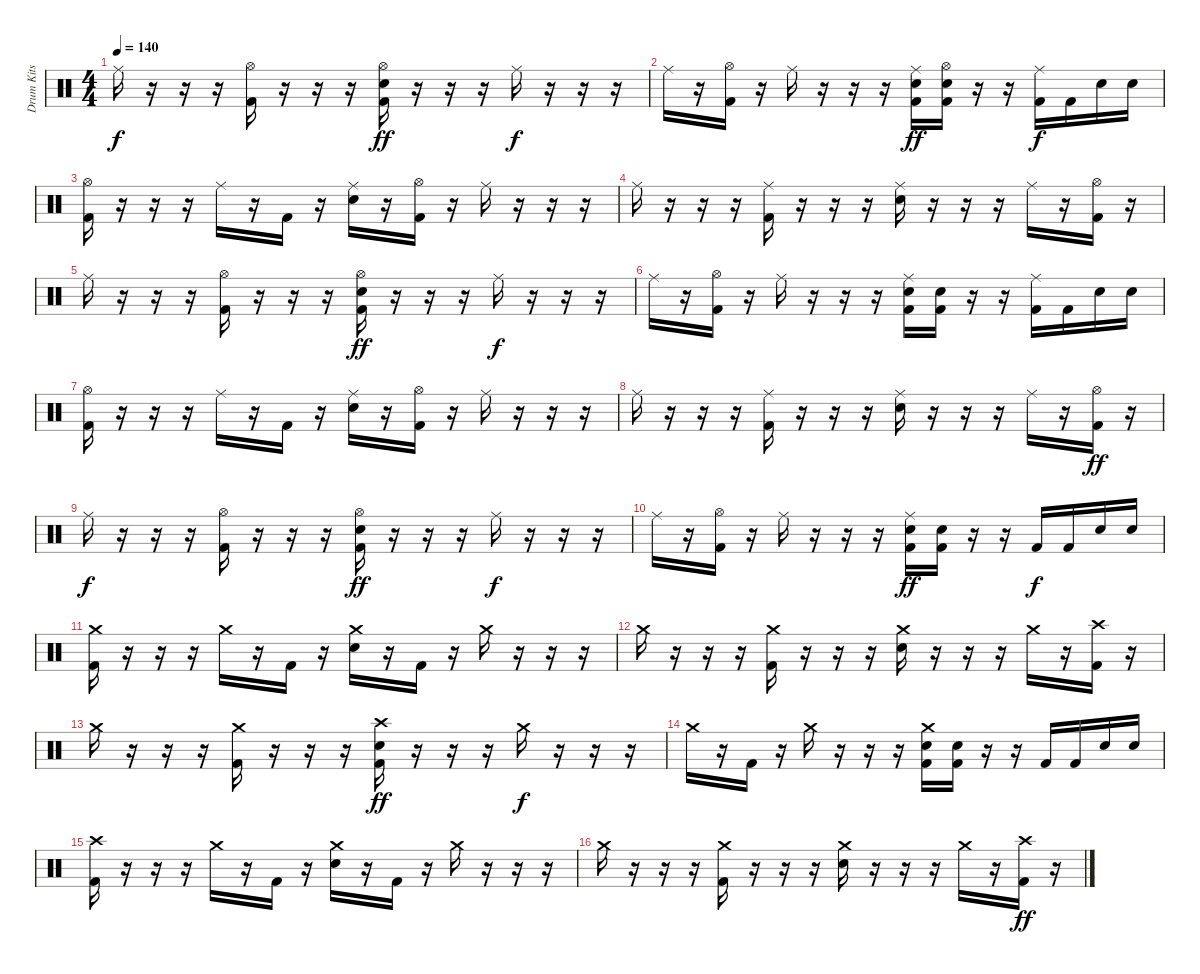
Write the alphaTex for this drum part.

\track ("Drum Kits" "Drum Kits") {instrument percussion}
\staff {score}
\articulation defaults
\ts (4 4)
\tempo 140
\clef neutral
\ks c "Ride (middle)".16{dy f}
r.16 r.16 r.16 ("Hi-Hat (open)" "Kick (hit) 2").16 r.16 r.16 r.16 ("Hi-Hat (open)" "Electric Snare (hit)" "Kick (hit) 2").16{dy ff} r.16 r.16 r.16 "Ride (middle)".16{dy f} r.16 r.16 r.16 |
"Ride (middle)".16 r.16 ("Hi-Hat (open)" "Kick (hit) 2").16 r.16 "Ride (middle)".16 r.16 r.16 r.16 ("Ride (middle)" "Electric Snare (hit)" "Kick (hit) 2").16{dy ff} ("Hi-Hat (open)" "Electric Snare (hit)" "Kick (hit) 2").16 r.16 r.16 ("Ride (middle)" "Kick (hit) 2").16{dy f} "Kick (hit) 2".16 "Electric Snare (hit)".16 "Electric Snare (hit)".16 |
("Hi-Hat (open)" "Kick (hit) 2").16 r.16 r.16 r.16 "Ride (middle)".16 r.16 "Kick (hit) 2".16 r.16 ("Ride (middle)" "Electric Snare (hit)").16 r.16 ("Hi-Hat (open)" "Kick (hit) 2").16 r.16 "Ride (middle)".16 r.16 r.16 r.16 |
"Ride (middle)".16 r.16 r.16 r.16 ("Ride (middle)" "Kick (hit) 2").16 r.16 r.16 r.16 ("Ride (middle)" "Electric Snare (hit)").16 r.16 r.16 r.16 "Ride (middle)".16 r.16 ("Hi-Hat (open)" "Kick (hit) 2").16 r.16 |
"Ride (middle)".16 r.16 r.16 r.16 ("Hi-Hat (open)" "Kick (hit) 2").16 r.16 r.16 r.16 ("Hi-Hat (open)" "Electric Snare (hit)" "Kick (hit) 2").16{dy ff} r.16 r.16 r.16 "Ride (middle)".16{dy f} r.16 r.16 r.16 |
"Ride (middle)".16 r.16 ("Hi-Hat (open)" "Kick (hit) 2").16 r.16 "Ride (middle)".16 r.16 r.16 r.16 ("Ride (middle)" "Electric Snare (hit)" "Kick (hit) 2").16 ("Electric Snare (hit)" "Kick (hit) 2").16 r.16 r.16 ("Ride (middle)" "Kick (hit) 2").16 "Kick (hit) 2".16 "Electric Snare (hit)".16 "Electric Snare (hit)".16 |
("Hi-Hat (open)" "Kick (hit) 2").16 r.16 r.16 r.16 "Ride (middle)".16 r.16 "Kick (hit) 2".16 r.16 ("Ride (middle)" "Electric Snare (hit)").16 r.16 ("Hi-Hat (open)" "Kick (hit) 2").16 r.16 "Ride (middle)".16 r.16 r.16 r.16 |
"Ride (middle)".16 r.16 r.16 r.16 ("Ride (middle)" "Kick (hit) 2").16 r.16 r.16 r.16 ("Ride (middle)" "Electric Snare (hit)").16 r.16 r.16 r.16 "Ride (middle)".16 r.16 ("Hi-Hat (open)" "Kick (hit) 2").16{dy ff} r.16 |
"Ride (middle)".16{dy f} r.16 r.16 r.16 ("Hi-Hat (open)" "Kick (hit) 2").16 r.16 r.16 r.16 ("Hi-Hat (open)" "Electric Snare (hit)" "Kick (hit) 2").16{dy ff} r.16 r.16 r.16 "Ride (middle)".16{dy f} r.16 r.16 r.16 |
"Ride (middle)".16 r.16 ("Hi-Hat (open)" "Kick (hit) 2").16 r.16 "Ride (middle)".16 r.16 r.16 r.16 ("Ride (middle)" "Electric Snare (hit)" "Kick (hit) 2").16{dy ff} ("Electric Snare (hit)" "Kick (hit) 2").16 r.16 r.16 "Kick (hit) 2".16{dy f} "Kick (hit) 2".16 "Electric Snare (hit)".16 "Electric Snare (hit)".16 |
("Crash medium (hit)" "Kick (hit) 2").16 r.16 r.16 r.16 "Crash medium (hit)".16 r.16 "Kick (hit) 2".16 r.16 ("Crash medium (hit)" "Electric Snare (hit)").16 r.16 "Kick (hit) 2".16 r.16 "Crash medium (hit)".16 r.16 r.16 r.16 |
"Crash medium (hit)".16 r.16 r.16 r.16 ("Crash medium (hit)" "Kick (hit) 2").16 r.16 r.16 r.16 ("Crash medium (hit)" "Electric Snare (hit)").16 r.16 r.16 r.16 "Crash medium (hit)".16 r.16 ("Crash high (hit)" "Kick (hit) 2").16 r.16 |
"Crash medium (hit)".16 r.16 r.16 r.16 ("Crash medium (hit)" "Kick (hit) 2").16 r.16 r.16 r.16 ("Crash high (hit)" "Electric Snare (hit)" "Kick (hit) 2").16{dy ff} r.16 r.16 r.16 "Crash medium (hit)".16{dy f} r.16 r.16 r.16 |
"Crash medium (hit)".16 r.16 "Kick (hit) 2".16 r.16 "Crash medium (hit)".16 r.16 r.16 r.16 ("Crash medium (hit)" "Electric Snare (hit)" "Kick (hit) 2").16 ("Electric Snare (hit)" "Kick (hit) 2").16 r.16 r.16 "Kick (hit) 2".16 "Kick (hit) 2".16 "Electric Snare (hit)".16 "Electric Snare (hit)".16 |
("Crash high (hit)" "Kick (hit) 2").16 r.16 r.16 r.16 "Crash medium (hit)".16 r.16 "Kick (hit) 2".16 r.16 ("Crash medium (hit)" "Electric Snare (hit)").16 r.16 "Kick (hit) 2".16 r.16 "Crash medium (hit)".16 r.16 r.16 r.16 |
"Crash medium (hit)".16 r.16 r.16 r.16 ("Crash medium (hit)" "Kick (hit) 2").16 r.16 r.16 r.16 ("Crash medium (hit)" "Electric Snare (hit)").16 r.16 r.16 r.16 "Crash medium (hit)".16 r.16 ("Crash high (hit)" "Kick (hit) 2").16{dy ff} r.16
